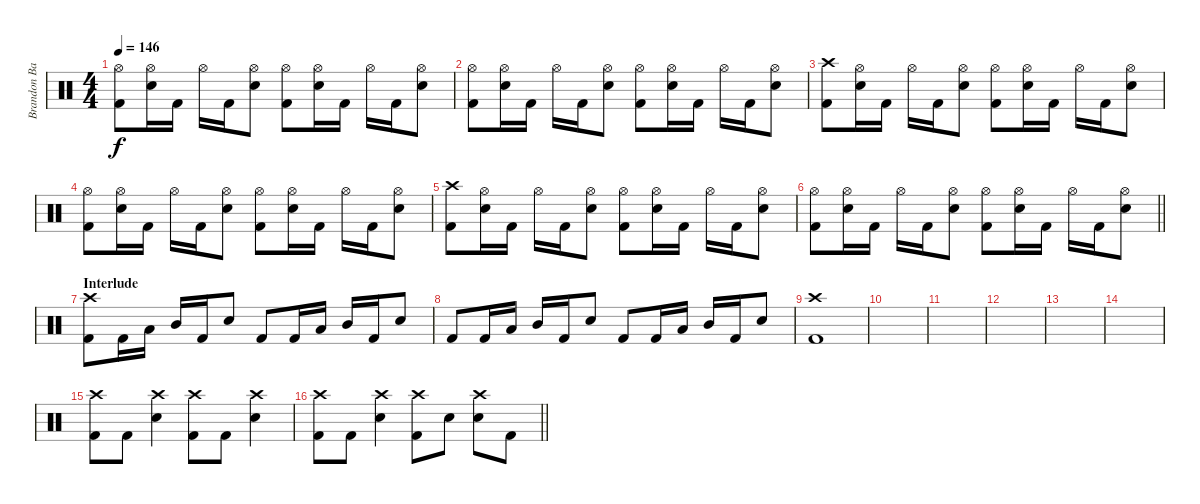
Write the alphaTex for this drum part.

\track ("Brandon Barnes - Drums" "Brandon Ba") {instrument percussion}
\staff {score}
\articulation defaults
\ts (4 4)
\tempo 146
\clef neutral
\ks c
("Hi-Hat (open)" "Kick (hit) 2").8{dy f} ("Snare (hit) 2" "Hi-Hat (open)").16 "Kick (hit) 2".16 "Hi-Hat (open)".16 "Kick (hit) 2".16 ("Snare (hit) 2" "Hi-Hat (open)").8 ("Hi-Hat (open)" "Kick (hit) 2").8 ("Snare (hit) 2" "Hi-Hat (open)").16 "Kick (hit) 2".16 "Hi-Hat (open)".16 "Kick (hit) 2".16 ("Snare (hit) 2" "Hi-Hat (open)").8 |
("Hi-Hat (open)" "Kick (hit) 2").8 ("Snare (hit) 2" "Hi-Hat (open)").16 "Kick (hit) 2".16 "Hi-Hat (open)".16 "Kick (hit) 2".16 ("Snare (hit) 2" "Hi-Hat (open)").8 ("Hi-Hat (open)" "Kick (hit) 2").8 ("Snare (hit) 2" "Hi-Hat (open)").16 "Kick (hit) 2".16 "Hi-Hat (open)".16 "Kick (hit) 2".16 ("Snare (hit) 2" "Hi-Hat (open)").8 |
("Crash high (hit)" "Kick (hit) 2").8 ("Snare (hit) 2" "Hi-Hat (open)").16 "Kick (hit) 2".16 "Hi-Hat (open)".16 "Kick (hit) 2".16 ("Snare (hit) 2" "Hi-Hat (open)").8 ("Hi-Hat (open)" "Kick (hit) 2").8 ("Snare (hit) 2" "Hi-Hat (open)").16 "Kick (hit) 2".16 "Hi-Hat (open)".16 "Kick (hit) 2".16 ("Snare (hit) 2" "Hi-Hat (open)").8 |
("Hi-Hat (open)" "Kick (hit) 2").8 ("Snare (hit) 2" "Hi-Hat (open)").16 "Kick (hit) 2".16 "Hi-Hat (open)".16 "Kick (hit) 2".16 ("Snare (hit) 2" "Hi-Hat (open)").8 ("Hi-Hat (open)" "Kick (hit) 2").8 ("Snare (hit) 2" "Hi-Hat (open)").16 "Kick (hit) 2".16 "Hi-Hat (open)".16 "Kick (hit) 2".16 ("Snare (hit) 2" "Hi-Hat (open)").8 |
("Crash high (hit)" "Kick (hit) 2").8 ("Snare (hit) 2" "Hi-Hat (open)").16 "Kick (hit) 2".16 "Hi-Hat (open)".16 "Kick (hit) 2".16 ("Snare (hit) 2" "Hi-Hat (open)").8 ("Hi-Hat (open)" "Kick (hit) 2").8 ("Snare (hit) 2" "Hi-Hat (open)").16 "Kick (hit) 2".16 "Hi-Hat (open)".16 "Kick (hit) 2".16 ("Snare (hit) 2" "Hi-Hat (open)").8 |
\barLineRight lightlight
("Hi-Hat (open)" "Kick (hit) 2").8 ("Snare (hit) 2" "Hi-Hat (open)").16 "Kick (hit) 2".16 "Hi-Hat (open)".16 "Kick (hit) 2".16 ("Snare (hit) 2" "Hi-Hat (open)").8 ("Hi-Hat (open)" "Kick (hit) 2").8 ("Snare (hit) 2" "Hi-Hat (open)").16 "Kick (hit) 2".16 "Hi-Hat (open)".16 "Kick (hit) 2".16 ("Snare (hit) 2" "Hi-Hat (open)").8 |
\section ("" "Interlude")
("Crash high (hit)" "Kick (hit) 2").8 "Kick (hit) 2".16 "Low Tom (hit)".16 "Mid Tom (hit)".16 "Kick (hit) 2".16 "Snare (hit) 2".8 "Kick (hit) 2".8 "Kick (hit) 2".16 "Low Tom (hit)".16 "Mid Tom (hit)".16 "Kick (hit) 2".16 "Snare (hit) 2".8 |
"Kick (hit) 2".8 "Kick (hit) 2".16 "Low Tom (hit)".16 "Mid Tom (hit)".16 "Kick (hit) 2".16 "Snare (hit) 2".8 "Kick (hit) 2".8 "Kick (hit) 2".16 "Low Tom (hit)".16 "Mid Tom (hit)".16 "Kick (hit) 2".16 "Snare (hit) 2".8 |
("Crash high (hit)" "Kick (hit) 2").1 |
|
|
|
|
|
("Crash high (hit)" "Kick (hit) 2").8 "Kick (hit) 2".8 ("Snare (hit) 2" "Crash high (hit)").4 ("Crash high (hit)" "Kick (hit) 2").8 "Kick (hit) 2".8 ("Snare (hit) 2" "Crash high (hit)").4 |
\barLineRight lightlight
("Crash high (hit)" "Kick (hit) 2").8 "Kick (hit) 2".8 ("Snare (hit) 2" "Crash high (hit)").4 ("Crash high (hit)" "Kick (hit) 2").8 "Snare (hit) 2".8 ("Snare (hit) 2" "Crash high (hit)").8 "Kick (hit) 2".8
